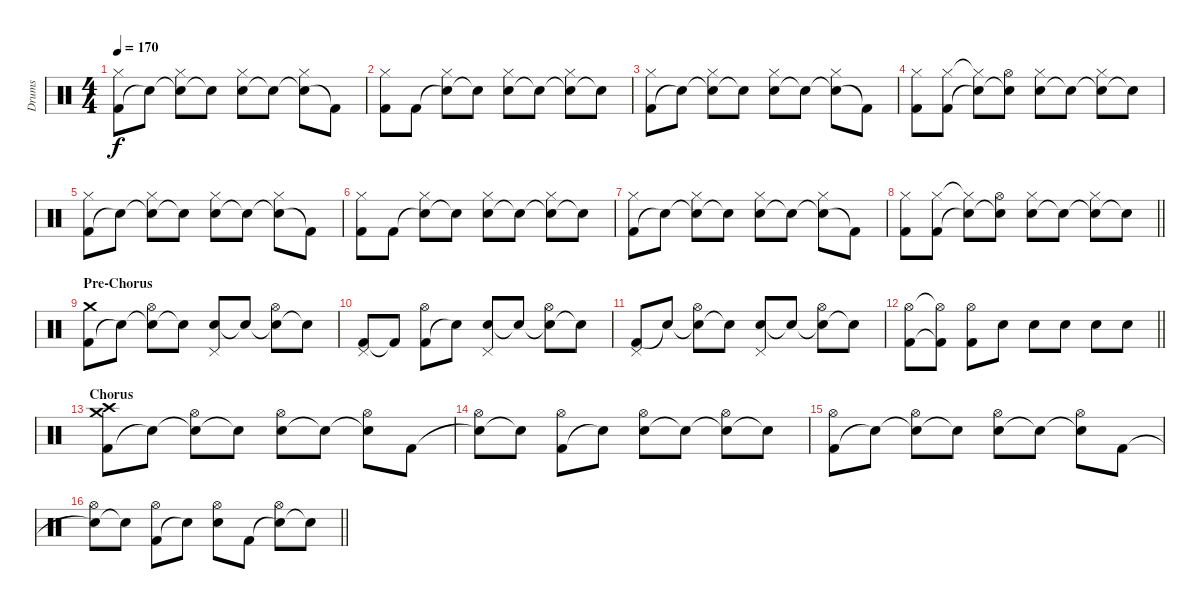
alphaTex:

\track ("Drums" "Drums") {instrument percussion}
\staff {score}
\articulation defaults
\ts (4 4)
\tempo 170
\clef neutral
\ks c
("Kick (hit) 2" "Hi-Hat (closed)").8{dy f} "Snare (hit)"{t}.8 ("Electric Snare (hit)"{t} "Hi-Hat (closed)").8 "Electric Snare (hit)"{t}.8 ("Electric Snare (hit)" "Hi-Hat (closed)").8 "Snare (hit)"{t}.8 ("Snare (hit)"{t} "Hi-Hat (closed)").8 "Kick (hit) 2"{t}.8 |
("Kick (hit) 2" "Hi-Hat (closed)").8 "Kick (hit) 2".8 ("Snare (hit)"{t} "Hi-Hat (closed)").8 "Snare (hit)"{t}.8 ("Electric Snare (hit)" "Hi-Hat (closed)").8 "Snare (hit)"{t}.8 ("Snare (hit)"{t} "Hi-Hat (closed)").8 "Snare (hit)"{t}.8 |
("Kick (hit) 2" "Hi-Hat (closed)").8 "Snare (hit)"{t}.8 ("Electric Snare (hit)"{t} "Hi-Hat (closed)").8 "Electric Snare (hit)"{t}.8 ("Electric Snare (hit)" "Hi-Hat (closed)").8 "Snare (hit)"{t}.8 ("Snare (hit)"{t} "Hi-Hat (closed)").8 "Kick (hit) 2"{t}.8 |
("Kick (hit) 2" "Hi-Hat (closed)").8 ("Kick (hit) 2" "Hi-Hat (closed)").8 ("Snare (hit)"{t} "Hi-Hat (closed)"{t}).8 ("Snare (hit)"{t} "Hi-Hat (open)").8 ("Electric Snare (hit)" "Hi-Hat (closed)").8 "Snare (hit)"{t}.8 ("Snare (hit)"{t} "Hi-Hat (closed)").8 "Snare (hit)"{t}.8 |
("Kick (hit) 2" "Hi-Hat (closed)").8 "Snare (hit)"{t}.8 ("Electric Snare (hit)"{t} "Hi-Hat (closed)").8 "Electric Snare (hit)"{t}.8 ("Electric Snare (hit)" "Hi-Hat (closed)").8 "Snare (hit)"{t}.8 ("Snare (hit)"{t} "Hi-Hat (closed)").8 "Kick (hit) 2"{t}.8 |
("Kick (hit) 2" "Hi-Hat (closed)").8 "Kick (hit) 2".8 ("Snare (hit)"{t} "Hi-Hat (closed)").8 "Snare (hit)"{t}.8 ("Electric Snare (hit)" "Hi-Hat (closed)").8 "Snare (hit)"{t}.8 ("Snare (hit)"{t} "Hi-Hat (closed)").8 "Snare (hit)"{t}.8 |
("Kick (hit) 2" "Hi-Hat (closed)").8 "Snare (hit)"{t}.8 ("Electric Snare (hit)"{t} "Hi-Hat (closed)").8 "Electric Snare (hit)"{t}.8 ("Electric Snare (hit)" "Hi-Hat (closed)").8 "Snare (hit)"{t}.8 ("Snare (hit)"{t} "Hi-Hat (closed)").8 "Kick (hit) 2"{t}.8 |
\barLineRight lightlight
("Kick (hit) 2" "Hi-Hat (closed)").8 ("Kick (hit) 2" "Hi-Hat (closed)").8 ("Snare (hit)"{t} "Hi-Hat (closed)"{t}).8 ("Snare (hit)"{t} "Hi-Hat (open)").8 ("Electric Snare (hit)" "Hi-Hat (closed)").8 "Snare (hit)"{t}.8 ("Snare (hit)"{t} "Hi-Hat (closed)").8 "Snare (hit)"{t}.8 |
\section ("" "Pre-Chorus")
("Kick (hit) 2" "Crash medium (hit)").8 "Snare (hit)"{t}.8 ("Snare (hit)"{t} "Hi-Hat (open)").8 "Snare (hit)"{t}.8 ("Electric Snare (hit)" "Pedal Hi-Hat (hit)").8 "Snare (hit)"{t}.8 ("Snare (hit)"{t} "Hi-Hat (open)").8 "Snare (hit)"{t}.8 |
("Kick (hit) 2" "Pedal Hi-Hat (hit)").8 "Kick (hit) 2"{t}.8 ("Kick (hit) 2" "Hi-Hat (open)").8 "Snare (hit)"{t}.8 ("Electric Snare (hit)" "Pedal Hi-Hat (hit)").8 "Snare (hit)"{t}.8 ("Snare (hit)"{t} "Hi-Hat (open)").8 "Snare (hit)"{t}.8 |
("Kick (hit) 2" "Pedal Hi-Hat (hit)").8 "Snare (hit)"{t}.8 ("Snare (hit)"{t} "Hi-Hat (open)").8 "Snare (hit)"{t}.8 ("Electric Snare (hit)" "Pedal Hi-Hat (hit)").8 "Snare (hit)"{t}.8 ("Snare (hit)"{t} "Hi-Hat (open)").8 "Snare (hit)"{t}.8 |
\barLineRight lightlight
("Kick (hit) 2" "Hi-Hat (open)").8 ("Kick (hit) 2"{t} "Hi-Hat (open)"{t}).8 ("Kick (hit) 2" "Hi-Hat (open)").8 "Electric Snare (hit)".8 "Electric Snare (hit)".8 "Electric Snare (hit)".8 "Electric Snare (hit)".8 "Electric Snare (hit)".8 |
\section ("" "Chorus")
("Kick (hit) 2" "Crash medium (hit)" "Crash high (hit)").8 "Snare (hit)"{t}.8 ("Snare (hit)"{t} "Hi-Hat (open)").8 "Snare (hit)"{t}.8 ("Electric Snare (hit)" "Hi-Hat (open)").8 "Snare (hit)"{t}.8 ("Snare (hit)"{t} "Hi-Hat (open)").8 "Kick (hit) 2".8 |
("Snare (hit)"{t} "Hi-Hat (open)").8 "Snare (hit)"{t}.8 ("Kick (hit) 2" "Hi-Hat (open)").8 "Snare (hit)"{t}.8 ("Electric Snare (hit)" "Hi-Hat (open)").8 "Snare (hit)"{t}.8 ("Snare (hit)"{t} "Hi-Hat (open)").8 "Snare (hit)"{t}.8 |
("Kick (hit) 2" "Hi-Hat (open)").8 "Snare (hit)"{t}.8 ("Snare (hit)"{t} "Hi-Hat (open)").8 "Snare (hit)"{t}.8 ("Electric Snare (hit)" "Hi-Hat (open)").8 "Snare (hit)"{t}.8 ("Snare (hit)"{t} "Hi-Hat (open)").8 "Kick (hit) 2".8 |
\barLineRight lightlight
("Snare (hit)"{t} "Hi-Hat (open)").8 "Snare (hit)"{t}.8 ("Kick (hit) 2" "Hi-Hat (open)").8 "Snare (hit)"{t}.8 ("Electric Snare (hit)" "Hi-Hat (open)").8 "Kick (hit) 2".8 ("Snare (hit)"{t} "Hi-Hat (open)").8 "Snare (hit)"{t}.8
